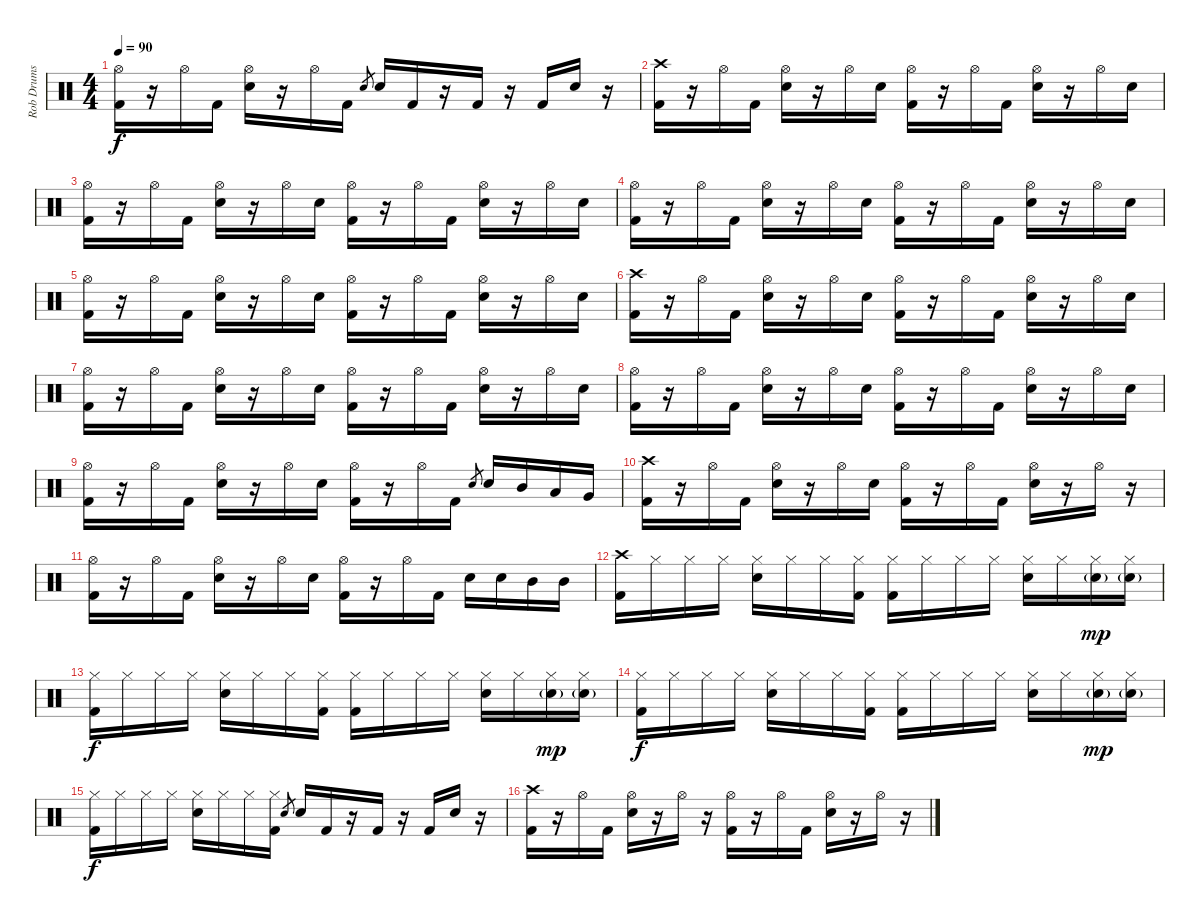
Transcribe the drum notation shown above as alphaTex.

\track ("Rob Drums" "Rob Drums") {instrument percussion}
\staff {score}
\articulation defaults
\ts (4 4)
\tempo 90
\clef neutral
\ks c
("Hi-Hat (open)" "Kick (hit) 2").16{dy f} r.16 "Hi-Hat (open)".16 "Kick (hit) 2".16 ("Hi-Hat (open)" "Electric Snare (hit)").16 r.16 "Hi-Hat (open)".16 "Kick (hit) 2".16 "Electric Snare (hit)".8{gr} "Electric Snare (hit)".16 "Kick (hit) 2".16 r.16 "Kick (hit) 2".16 r.16 "Kick (hit) 2".16 "Electric Snare (hit)".16 r.16 |
("Crash high (hit)" "Kick (hit) 2").16 r.16 "Hi-Hat (open)".16 "Kick (hit) 2".16 ("Hi-Hat (open)" "Electric Snare (hit)").16 r.16 "Hi-Hat (open)".16 "Electric Snare (hit)".16 ("Hi-Hat (open)" "Kick (hit) 2").16 r.16 "Hi-Hat (open)".16 "Kick (hit) 2".16 ("Hi-Hat (open)" "Electric Snare (hit)").16 r.16 "Hi-Hat (open)".16 "Electric Snare (hit)".16 |
("Hi-Hat (open)" "Kick (hit) 2").16 r.16 "Hi-Hat (open)".16 "Kick (hit) 2".16 ("Hi-Hat (open)" "Electric Snare (hit)").16 r.16 "Hi-Hat (open)".16 "Electric Snare (hit)".16 ("Hi-Hat (open)" "Kick (hit) 2").16 r.16 "Hi-Hat (open)".16 "Kick (hit) 2".16 ("Hi-Hat (open)" "Electric Snare (hit)").16 r.16 "Hi-Hat (open)".16 "Electric Snare (hit)".16 |
("Hi-Hat (open)" "Kick (hit) 2").16 r.16 "Hi-Hat (open)".16 "Kick (hit) 2".16 ("Hi-Hat (open)" "Electric Snare (hit)").16 r.16 "Hi-Hat (open)".16 "Electric Snare (hit)".16 ("Hi-Hat (open)" "Kick (hit) 2").16 r.16 "Hi-Hat (open)".16 "Kick (hit) 2".16 ("Hi-Hat (open)" "Electric Snare (hit)").16 r.16 "Hi-Hat (open)".16 "Electric Snare (hit)".16 |
("Hi-Hat (open)" "Kick (hit) 2").16 r.16 "Hi-Hat (open)".16 "Kick (hit) 2".16 ("Hi-Hat (open)" "Electric Snare (hit)").16 r.16 "Hi-Hat (open)".16 "Electric Snare (hit)".16 ("Hi-Hat (open)" "Kick (hit) 2").16 r.16 "Hi-Hat (open)".16 "Kick (hit) 2".16 ("Hi-Hat (open)" "Electric Snare (hit)").16 r.16 "Hi-Hat (open)".16 "Electric Snare (hit)".16 |
("Crash high (hit)" "Kick (hit) 2").16 r.16 "Hi-Hat (open)".16 "Kick (hit) 2".16 ("Hi-Hat (open)" "Electric Snare (hit)").16 r.16 "Hi-Hat (open)".16 "Electric Snare (hit)".16 ("Hi-Hat (open)" "Kick (hit) 2").16 r.16 "Hi-Hat (open)".16 "Kick (hit) 2".16 ("Hi-Hat (open)" "Electric Snare (hit)").16 r.16 "Hi-Hat (open)".16 "Electric Snare (hit)".16 |
("Hi-Hat (open)" "Kick (hit) 2").16 r.16 "Hi-Hat (open)".16 "Kick (hit) 2".16 ("Hi-Hat (open)" "Electric Snare (hit)").16 r.16 "Hi-Hat (open)".16 "Electric Snare (hit)".16 ("Hi-Hat (open)" "Kick (hit) 2").16 r.16 "Hi-Hat (open)".16 "Kick (hit) 2".16 ("Hi-Hat (open)" "Electric Snare (hit)").16 r.16 "Hi-Hat (open)".16 "Electric Snare (hit)".16 |
("Hi-Hat (open)" "Kick (hit) 2").16 r.16 "Hi-Hat (open)".16 "Kick (hit) 2".16 ("Hi-Hat (open)" "Electric Snare (hit)").16 r.16 "Hi-Hat (open)".16 "Electric Snare (hit)".16 ("Hi-Hat (open)" "Kick (hit) 2").16 r.16 "Hi-Hat (open)".16 "Kick (hit) 2".16 ("Hi-Hat (open)" "Electric Snare (hit)").16 r.16 "Hi-Hat (open)".16 "Electric Snare (hit)".16 |
("Hi-Hat (open)" "Kick (hit) 2").16 r.16 "Hi-Hat (open)".16 "Kick (hit) 2".16 ("Hi-Hat (open)" "Electric Snare (hit)").16 r.16 "Hi-Hat (open)".16 "Electric Snare (hit)".16 ("Hi-Hat (open)" "Kick (hit) 2").16 r.16 "Hi-Hat (open)".16 "Kick (hit) 2".16 "Electric Snare (hit)".8{gr} "Electric Snare (hit)".16 "Mid Tom (hit)".16 "Low Tom (hit)".16 "Very Low Tom (hit)".16 |
("Crash high (hit)" "Kick (hit) 2").16 r.16 "Hi-Hat (open)".16 "Kick (hit) 2".16 ("Hi-Hat (open)" "Electric Snare (hit)").16 r.16 "Hi-Hat (open)".16 "Electric Snare (hit)".16 ("Hi-Hat (open)" "Kick (hit) 2").16 r.16 "Hi-Hat (open)".16 "Kick (hit) 2".16 ("Hi-Hat (open)" "Electric Snare (hit)").16 r.16 "Hi-Hat (open)".16 r.16 |
("Hi-Hat (open)" "Kick (hit) 2").16 r.16 "Hi-Hat (open)".16 "Kick (hit) 2".16 ("Hi-Hat (open)" "Electric Snare (hit)").16 r.16 "Hi-Hat (open)".16 "Electric Snare (hit)".16 ("Hi-Hat (open)" "Kick (hit) 2").16 r.16 "Hi-Hat (open)".16 "Kick (hit) 2".16 "Electric Snare (hit)".16 "Electric Snare (hit)".16 "Mid Tom (hit)".16 "Mid Tom (hit)".16 |
("Crash high (hit)" "Kick (hit) 2").16 "Hi-Hat (closed)".16 "Hi-Hat (closed)".16 "Hi-Hat (closed)".16 ("Hi-Hat (closed)" "Hand Clap (hit)").16 "Hi-Hat (closed)".16 "Hi-Hat (closed)".16 ("Hi-Hat (closed)" "Kick (hit) 2").16 ("Hi-Hat (closed)" "Kick (hit) 2").16 "Hi-Hat (closed)".16 "Hi-Hat (closed)".16 "Hi-Hat (closed)".16 ("Hi-Hat (closed)" "Hand Clap (hit)").16 "Hi-Hat (closed)".16 ("Hi-Hat (closed)" "Hand Clap (hit)"{g}).16{dy mp} ("Hi-Hat (closed)" "Hand Clap (hit)"{g}).16 |
("Hi-Hat (closed)" "Kick (hit) 2").16{dy f} "Hi-Hat (closed)".16 "Hi-Hat (closed)".16 "Hi-Hat (closed)".16 ("Hi-Hat (closed)" "Hand Clap (hit)").16 "Hi-Hat (closed)".16 "Hi-Hat (closed)".16 ("Hi-Hat (closed)" "Kick (hit) 2").16 ("Hi-Hat (closed)" "Kick (hit) 2").16 "Hi-Hat (closed)".16 "Hi-Hat (closed)".16 "Hi-Hat (closed)".16 ("Hi-Hat (closed)" "Hand Clap (hit)").16 "Hi-Hat (closed)".16 ("Hi-Hat (closed)" "Hand Clap (hit)"{g}).16{dy mp} ("Hi-Hat (closed)" "Hand Clap (hit)"{g}).16 |
("Hi-Hat (closed)" "Kick (hit) 2").16{dy f} "Hi-Hat (closed)".16 "Hi-Hat (closed)".16 "Hi-Hat (closed)".16 ("Hi-Hat (closed)" "Hand Clap (hit)").16 "Hi-Hat (closed)".16 "Hi-Hat (closed)".16 ("Hi-Hat (closed)" "Kick (hit) 2").16 ("Hi-Hat (closed)" "Kick (hit) 2").16 "Hi-Hat (closed)".16 "Hi-Hat (closed)".16 "Hi-Hat (closed)".16 ("Hi-Hat (closed)" "Hand Clap (hit)").16 "Hi-Hat (closed)".16 ("Hi-Hat (closed)" "Hand Clap (hit)"{g}).16{dy mp} ("Hi-Hat (closed)" "Hand Clap (hit)"{g}).16 |
("Hi-Hat (closed)" "Kick (hit) 2").16{dy f} "Hi-Hat (closed)".16 "Hi-Hat (closed)".16 "Hi-Hat (closed)".16 ("Hi-Hat (closed)" "Hand Clap (hit)").16 "Hi-Hat (closed)".16 "Hi-Hat (closed)".16 ("Hi-Hat (closed)" "Kick (hit) 2").16 "Electric Snare (hit)".8{gr} "Electric Snare (hit)".16 "Kick (hit) 2".16 r.16 "Kick (hit) 2".16 r.16 "Kick (hit) 2".16 "Electric Snare (hit)".16 r.16 |
("Crash high (hit)" "Kick (hit) 2").16 r.16 "Hi-Hat (open)".16 "Kick (hit) 2".16 ("Hi-Hat (open)" "Electric Snare (hit)").16 r.16 "Hi-Hat (open)".16 r.16 ("Hi-Hat (open)" "Kick (hit) 2").16 r.16 "Hi-Hat (open)".16 "Kick (hit) 2".16 ("Hi-Hat (open)" "Electric Snare (hit)").16 r.16 "Hi-Hat (open)".16 r.16
